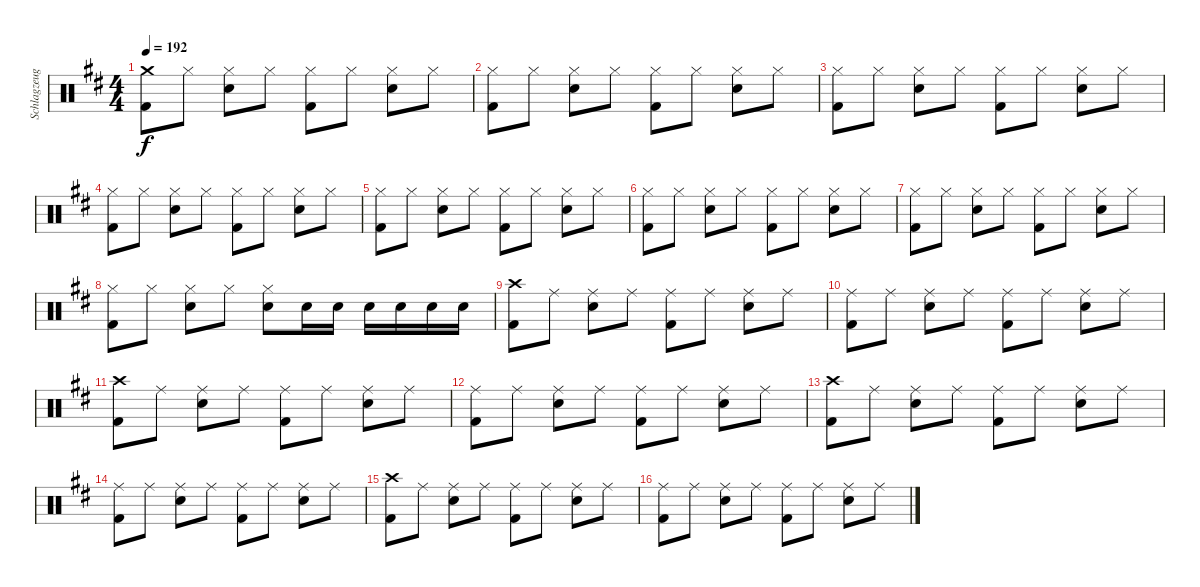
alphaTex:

\track ("Schlagzeug - Vom" "Schlagzeug") {instrument percussion}
\staff {score}
\articulation defaults
\ts (4 4)
\tempo 192
\clef neutral
\ks d
("Crash medium (hit)" "Kick (hit) 2").8{dy f} "Hi-Hat (closed)".8 ("Hi-Hat (closed)" "Snare (hit) 2").8 "Hi-Hat (closed)".8 ("Hi-Hat (closed)" "Kick (hit) 2").8 "Hi-Hat (closed)".8 ("Hi-Hat (closed)" "Snare (hit) 2").8 "Hi-Hat (closed)".8 |
("Hi-Hat (closed)" "Kick (hit) 2").8 "Hi-Hat (closed)".8 ("Hi-Hat (closed)" "Snare (hit) 2").8 "Hi-Hat (closed)".8 ("Hi-Hat (closed)" "Kick (hit) 2").8 "Hi-Hat (closed)".8 ("Hi-Hat (closed)" "Snare (hit) 2").8 "Hi-Hat (closed)".8 |
("Hi-Hat (closed)" "Kick (hit) 2").8 "Hi-Hat (closed)".8 ("Hi-Hat (closed)" "Snare (hit) 2").8 "Hi-Hat (closed)".8 ("Hi-Hat (closed)" "Kick (hit) 2").8 "Hi-Hat (closed)".8 ("Hi-Hat (closed)" "Snare (hit) 2").8 "Hi-Hat (closed)".8 |
("Hi-Hat (closed)" "Kick (hit) 2").8 "Hi-Hat (closed)".8 ("Hi-Hat (closed)" "Snare (hit) 2").8 "Hi-Hat (closed)".8 ("Hi-Hat (closed)" "Kick (hit) 2").8 "Hi-Hat (closed)".8 ("Hi-Hat (closed)" "Snare (hit) 2").8 "Hi-Hat (closed)".8 |
("Hi-Hat (closed)" "Kick (hit) 2").8 "Hi-Hat (closed)".8 ("Hi-Hat (closed)" "Snare (hit) 2").8 "Hi-Hat (closed)".8 ("Hi-Hat (closed)" "Kick (hit) 2").8 "Hi-Hat (closed)".8 ("Hi-Hat (closed)" "Snare (hit) 2").8 "Hi-Hat (closed)".8 |
("Hi-Hat (closed)" "Kick (hit) 2").8 "Hi-Hat (closed)".8 ("Hi-Hat (closed)" "Snare (hit) 2").8 "Hi-Hat (closed)".8 ("Hi-Hat (closed)" "Kick (hit) 2").8 "Hi-Hat (closed)".8 ("Hi-Hat (closed)" "Snare (hit) 2").8 "Hi-Hat (closed)".8 |
("Hi-Hat (closed)" "Kick (hit) 2").8 "Hi-Hat (closed)".8 ("Hi-Hat (closed)" "Snare (hit) 2").8 "Hi-Hat (closed)".8 ("Hi-Hat (closed)" "Kick (hit) 2").8 "Hi-Hat (closed)".8 ("Hi-Hat (closed)" "Snare (hit) 2").8 "Hi-Hat (closed)".8 |
("Hi-Hat (closed)" "Kick (hit) 2").8 "Hi-Hat (closed)".8 ("Hi-Hat (closed)" "Snare (hit) 2").8 "Hi-Hat (closed)".8 ("Hi-Hat (closed)" "Snare (hit) 2").8 "Snare (hit) 2".16 "Snare (hit) 2".16 "Snare (hit) 2".16 "Snare (hit) 2".16 "Snare (hit) 2".16 "Snare (hit) 2".16 |
("Crash high (hit)" "Kick (hit) 2").8 "Ride (middle)".8 ("Ride (middle)" "Snare (hit) 2").8 "Ride (middle)".8 ("Ride (middle)" "Kick (hit) 2").8 "Ride (middle)".8 ("Ride (middle)" "Snare (hit) 2").8 "Ride (middle)".8 |
("Ride (middle)" "Kick (hit) 2").8 "Ride (middle)".8 ("Ride (middle)" "Snare (hit) 2").8 "Ride (middle)".8 ("Ride (middle)" "Kick (hit) 2").8 "Ride (middle)".8 ("Ride (middle)" "Snare (hit) 2").8 "Ride (middle)".8 |
("Crash high (hit)" "Kick (hit) 2").8 "Ride (middle)".8 ("Ride (middle)" "Snare (hit) 2").8 "Ride (middle)".8 ("Ride (middle)" "Kick (hit) 2").8 "Ride (middle)".8 ("Ride (middle)" "Snare (hit) 2").8 "Ride (middle)".8 |
("Ride (middle)" "Kick (hit) 2").8 "Ride (middle)".8 ("Ride (middle)" "Snare (hit) 2").8 "Ride (middle)".8 ("Ride (middle)" "Kick (hit) 2").8 "Ride (middle)".8 ("Ride (middle)" "Snare (hit) 2").8 "Ride (middle)".8 |
("Crash high (hit)" "Kick (hit) 2").8 "Ride (middle)".8 ("Ride (middle)" "Snare (hit) 2").8 "Ride (middle)".8 ("Ride (middle)" "Kick (hit) 2").8 "Ride (middle)".8 ("Ride (middle)" "Snare (hit) 2").8 "Ride (middle)".8 |
("Ride (middle)" "Kick (hit) 2").8 "Ride (middle)".8 ("Ride (middle)" "Snare (hit) 2").8 "Ride (middle)".8 ("Ride (middle)" "Kick (hit) 2").8 "Ride (middle)".8 ("Ride (middle)" "Snare (hit) 2").8 "Ride (middle)".8 |
("Crash high (hit)" "Kick (hit) 2").8 "Ride (middle)".8 ("Ride (middle)" "Snare (hit) 2").8 "Ride (middle)".8 ("Ride (middle)" "Kick (hit) 2").8 "Ride (middle)".8 ("Ride (middle)" "Snare (hit) 2").8 "Ride (middle)".8 |
("Ride (middle)" "Kick (hit) 2").8 "Ride (middle)".8 ("Ride (middle)" "Snare (hit) 2").8 "Ride (middle)".8 ("Ride (middle)" "Kick (hit) 2").8 "Ride (middle)".8 ("Ride (middle)" "Snare (hit) 2").8 "Ride (middle)".8
